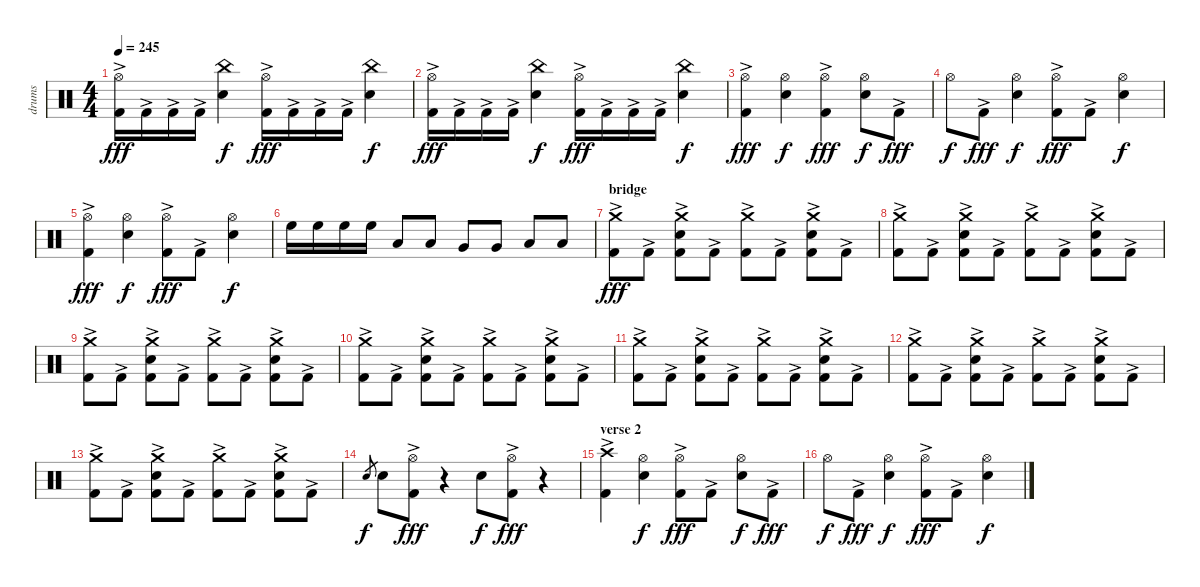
\track ("drums" "drums") {instrument percussion}
\staff {score}
\articulation defaults
\ts (4 4)
\tempo 245
\clef neutral
\ks c
("Hi-Hat (open)" "Kick (hit) 2"{ac}).16{dy fff} "Kick (hit) 2"{ac}.16 "Kick (hit) 2"{ac}.16 "Kick (hit) 2"{ac}.16 ("China (hit)" "Electric Snare (hit)").4{dy f} ("Hi-Hat (open)" "Kick (hit) 2"{ac}).16{dy fff} "Kick (hit) 2"{ac}.16 "Kick (hit) 2"{ac}.16 "Kick (hit) 2"{ac}.16 ("China (hit)" "Electric Snare (hit)").4{dy f} |
("Hi-Hat (open)" "Kick (hit) 2"{ac}).16{dy fff} "Kick (hit) 2"{ac}.16 "Kick (hit) 2"{ac}.16 "Kick (hit) 2"{ac}.16 ("China (hit)" "Electric Snare (hit)").4{dy f} ("Hi-Hat (open)" "Kick (hit) 2"{ac}).16{dy fff} "Kick (hit) 2"{ac}.16 "Kick (hit) 2"{ac}.16 "Kick (hit) 2"{ac}.16 ("China (hit)" "Electric Snare (hit)").4{dy f} |
("Hi-Hat (open)" "Kick (hit) 2"{ac}).4{dy fff} ("Hi-Hat (open)" "Electric Snare (hit)").4{dy f} ("Hi-Hat (open)" "Kick (hit) 2"{ac}).4{dy fff} ("Hi-Hat (open)" "Electric Snare (hit)").8{dy f} "Kick (hit) 2"{ac}.8{dy fff} |
"Hi-Hat (open)".8{dy f} "Kick (hit) 2"{ac}.8{dy fff} ("Hi-Hat (open)" "Electric Snare (hit)").4{dy f} ("Hi-Hat (open)" "Kick (hit) 2"{ac}).8{dy fff} "Kick (hit) 2"{ac}.8 ("Hi-Hat (open)" "Electric Snare (hit)").4{dy f} |
("Hi-Hat (open)" "Kick (hit) 2"{ac}).4{dy fff} ("Hi-Hat (open)" "Electric Snare (hit)").4{dy f} ("Hi-Hat (open)" "Kick (hit) 2"{ac}).8{dy fff} "Kick (hit) 2"{ac}.8 ("Hi-Hat (open)" "Electric Snare (hit)").4{dy f} |
"High Floor Tom (hit)".16 "High Floor Tom (hit)".16 "High Floor Tom (hit)".16 "High Floor Tom (hit)".16 "Low Tom (hit)".8 "Low Tom (hit)".8 "Very Low Tom (hit)".8 "Very Low Tom (hit)".8 "Low Floor Tom (hit)".8 "Low Floor Tom (hit)".8 |
\section ("" "bridge")
("Crash medium (hit)" "Kick (hit) 2"{ac}).8{dy fff} "Kick (hit) 2"{ac}.8 ("Crash medium (hit)" "Electric Snare (hit)" "Kick (hit) 2"{ac}).8 "Kick (hit) 2"{ac}.8 ("Crash medium (hit)" "Kick (hit) 2"{ac}).8 "Kick (hit) 2"{ac}.8 ("Crash medium (hit)" "Electric Snare (hit)" "Kick (hit) 2"{ac}).8 "Kick (hit) 2"{ac}.8 |
("Crash medium (hit)" "Kick (hit) 2"{ac}).8 "Kick (hit) 2"{ac}.8 ("Crash medium (hit)" "Electric Snare (hit)" "Kick (hit) 2"{ac}).8 "Kick (hit) 2"{ac}.8 ("Crash medium (hit)" "Kick (hit) 2"{ac}).8 "Kick (hit) 2"{ac}.8 ("Crash medium (hit)" "Electric Snare (hit)" "Kick (hit) 2"{ac}).8 "Kick (hit) 2"{ac}.8 |
("Crash medium (hit)" "Kick (hit) 2"{ac}).8 "Kick (hit) 2"{ac}.8 ("Crash medium (hit)" "Electric Snare (hit)" "Kick (hit) 2"{ac}).8 "Kick (hit) 2"{ac}.8 ("Crash medium (hit)" "Kick (hit) 2"{ac}).8 "Kick (hit) 2"{ac}.8 ("Crash medium (hit)" "Electric Snare (hit)" "Kick (hit) 2"{ac}).8 "Kick (hit) 2"{ac}.8 |
("Crash medium (hit)" "Kick (hit) 2"{ac}).8 "Kick (hit) 2"{ac}.8 ("Crash medium (hit)" "Electric Snare (hit)" "Kick (hit) 2"{ac}).8 "Kick (hit) 2"{ac}.8 ("Crash medium (hit)" "Kick (hit) 2"{ac}).8 "Kick (hit) 2"{ac}.8 ("Crash medium (hit)" "Electric Snare (hit)" "Kick (hit) 2"{ac}).8 "Kick (hit) 2"{ac}.8 |
("Crash medium (hit)" "Kick (hit) 2"{ac}).8 "Kick (hit) 2"{ac}.8 ("Crash medium (hit)" "Electric Snare (hit)" "Kick (hit) 2"{ac}).8 "Kick (hit) 2"{ac}.8 ("Crash medium (hit)" "Kick (hit) 2"{ac}).8 "Kick (hit) 2"{ac}.8 ("Crash medium (hit)" "Electric Snare (hit)" "Kick (hit) 2"{ac}).8 "Kick (hit) 2"{ac}.8 |
("Crash medium (hit)" "Kick (hit) 2"{ac}).8 "Kick (hit) 2"{ac}.8 ("Crash medium (hit)" "Electric Snare (hit)" "Kick (hit) 2"{ac}).8 "Kick (hit) 2"{ac}.8 ("Crash medium (hit)" "Kick (hit) 2"{ac}).8 "Kick (hit) 2"{ac}.8 ("Crash medium (hit)" "Electric Snare (hit)" "Kick (hit) 2"{ac}).8 "Kick (hit) 2"{ac}.8 |
("Crash medium (hit)" "Kick (hit) 2"{ac}).8 "Kick (hit) 2"{ac}.8 ("Crash medium (hit)" "Electric Snare (hit)" "Kick (hit) 2"{ac}).8 "Kick (hit) 2"{ac}.8 ("Crash medium (hit)" "Kick (hit) 2"{ac}).8 "Kick (hit) 2"{ac}.8 ("Crash medium (hit)" "Electric Snare (hit)" "Kick (hit) 2"{ac}).8 "Kick (hit) 2"{ac}.8 |
"Electric Snare (hit)".8{gr dy f} "Electric Snare (hit)".8 ("Hi-Hat (open)" "Kick (hit) 2"{ac}).8{dy fff} r.4 "Electric Snare (hit)".8{dy f} ("Hi-Hat (open)" "Kick (hit) 2"{ac}).8{dy fff} r.4 |
\section ("" "verse 2")
("Crash high (hit)" "Kick (hit) 2"{ac}).4 ("Hi-Hat (open)" "Electric Snare (hit)").4{dy f} ("Hi-Hat (open)" "Kick (hit) 2"{ac}).8{dy fff} "Kick (hit) 2"{ac}.8 ("Hi-Hat (open)" "Electric Snare (hit)").8{dy f} "Kick (hit) 2"{ac}.8{dy fff} |
"Hi-Hat (open)".8{dy f} "Kick (hit) 2"{ac}.8{dy fff} ("Hi-Hat (open)" "Electric Snare (hit)").4{dy f} ("Hi-Hat (open)" "Kick (hit) 2"{ac}).8{dy fff} "Kick (hit) 2"{ac}.8 ("Hi-Hat (open)" "Electric Snare (hit)").4{dy f}
